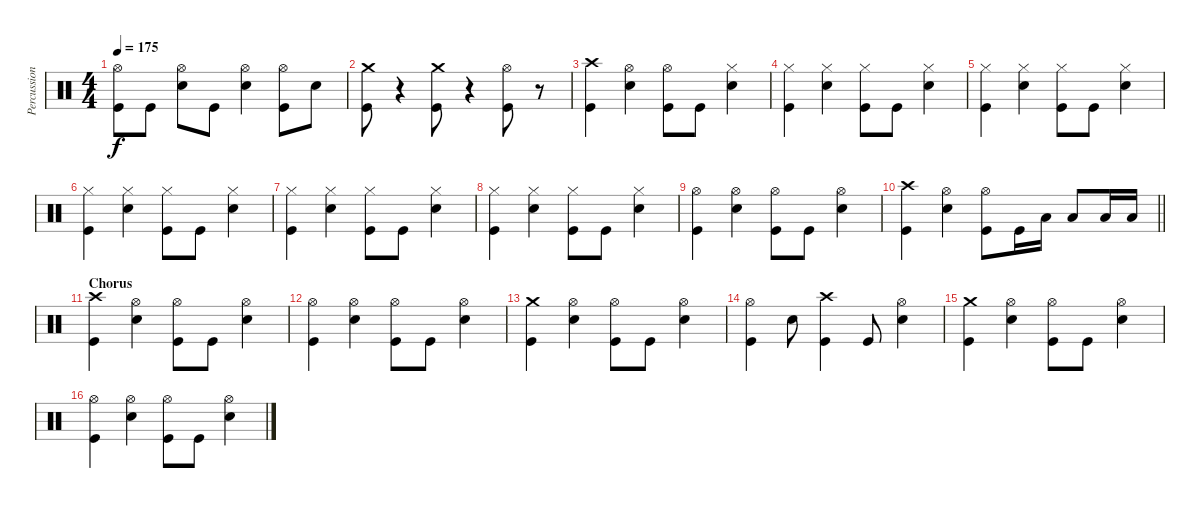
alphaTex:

\track ("Percussion" "Percussion") {instrument percussion}
\staff {score}
\articulation defaults
\ts (4 4)
\tempo 175
\clef neutral
\ks c
("Hi-Hat (open)" "Kick (hit)").8{dy f} "Kick (hit)".8 ("Hi-Hat (open)" "Electric Snare (hit)").8 "Kick (hit)".8 ("Hi-Hat (open)" "Electric Snare (hit)").4 ("Hi-Hat (open)" "Kick (hit)").8 "Electric Snare (hit)".8 |
("Crash medium (hit)" "Kick (hit)").8 r.4{volume 0} ("Crash medium (hit)" "Kick (hit)").8{volume 13} r.4{volume 0} ("Hi-Hat (open)" "Kick (hit)").8{volume 13} r.8 |
("Crash high (hit)" "Kick (hit)").4 ("Hi-Hat (open)" "Electric Snare (hit)").4 ("Hi-Hat (open)" "Kick (hit)").8 "Kick (hit)".8 ("Hi-Hat (closed)" "Electric Snare (hit)").4 |
("Hi-Hat (closed)" "Kick (hit)").4 ("Hi-Hat (closed)" "Electric Snare (hit)").4 ("Hi-Hat (closed)" "Kick (hit)").8 "Kick (hit)".8 ("Hi-Hat (closed)" "Electric Snare (hit)").4 |
("Hi-Hat (closed)" "Kick (hit)").4 ("Hi-Hat (closed)" "Electric Snare (hit)").4 ("Hi-Hat (closed)" "Kick (hit)").8 "Kick (hit)".8 ("Hi-Hat (closed)" "Electric Snare (hit)").4 |
("Hi-Hat (closed)" "Kick (hit)").4 ("Hi-Hat (closed)" "Electric Snare (hit)").4 ("Hi-Hat (closed)" "Kick (hit)").8 "Kick (hit)".8 ("Hi-Hat (closed)" "Electric Snare (hit)").4 |
("Hi-Hat (closed)" "Kick (hit)").4 ("Hi-Hat (closed)" "Electric Snare (hit)").4 ("Hi-Hat (closed)" "Kick (hit)").8 "Kick (hit)".8 ("Hi-Hat (closed)" "Electric Snare (hit)").4 |
("Hi-Hat (closed)" "Kick (hit)").4 ("Hi-Hat (closed)" "Electric Snare (hit)").4 ("Hi-Hat (closed)" "Kick (hit)").8 "Kick (hit)".8 ("Hi-Hat (closed)" "Electric Snare (hit)").4 |
("Hi-Hat (open)" "Kick (hit)").4 ("Hi-Hat (open)" "Electric Snare (hit)").4 ("Hi-Hat (open)" "Kick (hit)").8 "Kick (hit)".8 ("Hi-Hat (open)" "Electric Snare (hit)").4 |
\barLineRight lightlight
("Crash high (hit)" "Kick (hit)").4 ("Hi-Hat (open)" "Electric Snare (hit)").4 ("Hi-Hat (open)" "Kick (hit)").8 "Kick (hit)".16 "Low Floor Tom (hit)".16 "Low Floor Tom (hit)".8 "Low Floor Tom (hit)".16 "Low Floor Tom (hit)".16 |
\section ("" "Chorus")
("Crash high (hit)" "Kick (hit)").4 ("Hi-Hat (open)" "Electric Snare (hit)").4 ("Hi-Hat (open)" "Kick (hit)").8 "Kick (hit)".8 ("Hi-Hat (open)" "Electric Snare (hit)").4 |
("Hi-Hat (open)" "Kick (hit)").4 ("Hi-Hat (open)" "Electric Snare (hit)").4 ("Hi-Hat (open)" "Kick (hit)").8 "Kick (hit)".8 ("Hi-Hat (open)" "Electric Snare (hit)").4 |
("Crash medium (hit)" "Kick (hit)").4 ("Hi-Hat (open)" "Electric Snare (hit)").4 ("Hi-Hat (open)" "Kick (hit)").8 "Kick (hit)".8 ("Hi-Hat (open)" "Electric Snare (hit)").4 |
("Hi-Hat (open)" "Kick (hit)").4 "Electric Snare (hit)".8 ("Crash high (hit)" "Kick (hit)").4 "Kick (hit)".8 ("Hi-Hat (open)" "Electric Snare (hit)").4 |
("Crash medium (hit)" "Kick (hit)").4 ("Hi-Hat (open)" "Electric Snare (hit)").4 ("Hi-Hat (open)" "Kick (hit)").8 "Kick (hit)".8 ("Hi-Hat (open)" "Electric Snare (hit)").4 |
("Hi-Hat (open)" "Kick (hit)").4 ("Hi-Hat (open)" "Electric Snare (hit)").4 ("Hi-Hat (open)" "Kick (hit)").8 "Kick (hit)".8 ("Hi-Hat (open)" "Electric Snare (hit)").4
